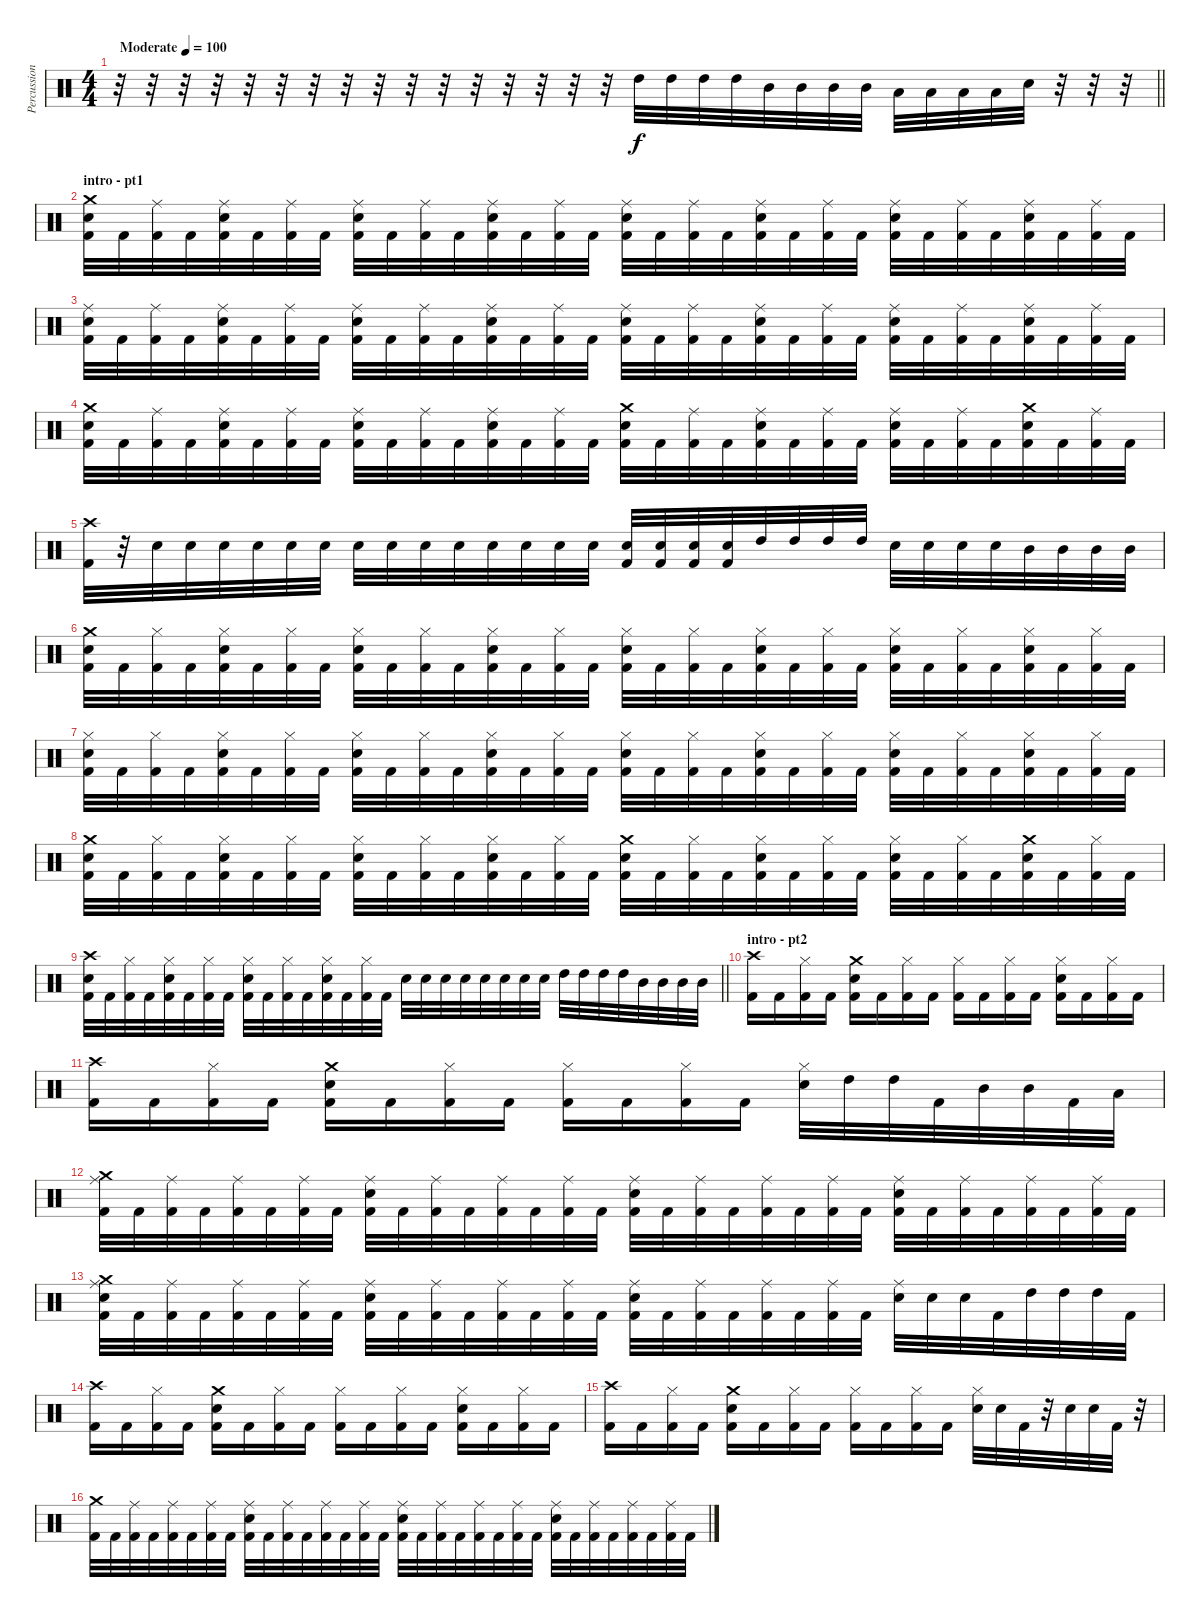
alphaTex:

\track ("Percussion" "Percussion") {instrument percussion}
\staff {score}
\articulation defaults
\ts (4 4)
\tempo (100 "Moderate")
\clef neutral
\barLineRight lightlight
\ks c
r.32{dy f} r.32 r.32 r.32 r.32 r.32 r.32 r.32 r.32 r.32 r.32 r.32 r.32 r.32 r.32 r.32 "High Tom (hit)".32 "High Tom (hit)".32 "High Tom (hit)".32 "High Tom (hit)".32 "Mid Tom (hit)".32 "Mid Tom (hit)".32 "Mid Tom (hit)".32 "Mid Tom (hit)".32 "Low Tom (hit)".32 "Low Tom (hit)".32 "Low Tom (hit)".32 "Low Tom (hit)".32 "Electric Snare (hit)".32 r.32 r.32 r.32 |
\section ("" "intro - pt1")
("Crash medium (hit)" "Electric Snare (hit)" "Kick (hit) 2").32 "Kick (hit) 2".32 ("Ride (middle)" "Kick (hit) 2").32 "Kick (hit) 2".32 ("Ride (middle)" "Electric Snare (hit)" "Kick (hit) 2").32 "Kick (hit) 2".32 ("Ride (middle)" "Kick (hit) 2").32 "Kick (hit) 2".32 ("Ride (middle)" "Electric Snare (hit)" "Kick (hit) 2").32 "Kick (hit) 2".32 ("Ride (middle)" "Kick (hit) 2").32 "Kick (hit) 2".32 ("Ride (middle)" "Electric Snare (hit)" "Kick (hit) 2").32 "Kick (hit) 2".32 ("Ride (middle)" "Kick (hit) 2").32 "Kick (hit) 2".32 ("Ride (middle)" "Electric Snare (hit)" "Kick (hit) 2").32 "Kick (hit) 2".32 ("Ride (middle)" "Kick (hit) 2").32 "Kick (hit) 2".32 ("Ride (middle)" "Electric Snare (hit)" "Kick (hit) 2").32 "Kick (hit) 2".32 ("Ride (middle)" "Kick (hit) 2").32 "Kick (hit) 2".32 ("Ride (middle)" "Electric Snare (hit)" "Kick (hit) 2").32 "Kick (hit) 2".32 ("Ride (middle)" "Kick (hit) 2").32 "Kick (hit) 2".32 ("Ride (middle)" "Electric Snare (hit)" "Kick (hit) 2").32 "Kick (hit) 2".32 ("Ride (middle)" "Kick (hit) 2").32 "Kick (hit) 2".32 |
("Ride (middle)" "Electric Snare (hit)" "Kick (hit) 2").32 "Kick (hit) 2".32 ("Ride (middle)" "Kick (hit) 2").32 "Kick (hit) 2".32 ("Ride (middle)" "Electric Snare (hit)" "Kick (hit) 2").32 "Kick (hit) 2".32 ("Ride (middle)" "Kick (hit) 2").32 "Kick (hit) 2".32 ("Ride (middle)" "Electric Snare (hit)" "Kick (hit) 2").32 "Kick (hit) 2".32 ("Ride (middle)" "Kick (hit) 2").32 "Kick (hit) 2".32 ("Ride (middle)" "Electric Snare (hit)" "Kick (hit) 2").32 "Kick (hit) 2".32 ("Ride (middle)" "Kick (hit) 2").32 "Kick (hit) 2".32 ("Ride (middle)" "Electric Snare (hit)" "Kick (hit) 2").32 "Kick (hit) 2".32 ("Ride (middle)" "Kick (hit) 2").32 "Kick (hit) 2".32 ("Ride (middle)" "Electric Snare (hit)" "Kick (hit) 2").32 "Kick (hit) 2".32 ("Ride (middle)" "Kick (hit) 2").32 "Kick (hit) 2".32 ("Ride (middle)" "Electric Snare (hit)" "Kick (hit) 2").32 "Kick (hit) 2".32 ("Ride (middle)" "Kick (hit) 2").32 "Kick (hit) 2".32 ("Ride (middle)" "Electric Snare (hit)" "Kick (hit) 2").32 "Kick (hit) 2".32 ("Ride (middle)" "Kick (hit) 2").32 "Kick (hit) 2".32 |
("Crash medium (hit)" "Electric Snare (hit)" "Kick (hit) 2").32 "Kick (hit) 2".32 ("Ride (middle)" "Kick (hit) 2").32 "Kick (hit) 2".32 ("Ride (middle)" "Electric Snare (hit)" "Kick (hit) 2").32 "Kick (hit) 2".32 ("Ride (middle)" "Kick (hit) 2").32 "Kick (hit) 2".32 ("Ride (middle)" "Electric Snare (hit)" "Kick (hit) 2").32 "Kick (hit) 2".32 ("Ride (middle)" "Kick (hit) 2").32 "Kick (hit) 2".32 ("Ride (middle)" "Electric Snare (hit)" "Kick (hit) 2").32 "Kick (hit) 2".32 ("Ride (middle)" "Kick (hit) 2").32 "Kick (hit) 2".32 ("Crash medium (hit)" "Electric Snare (hit)" "Kick (hit) 2").32 "Kick (hit) 2".32 ("Ride (middle)" "Kick (hit) 2").32 "Kick (hit) 2".32 ("Ride (middle)" "Electric Snare (hit)" "Kick (hit) 2").32 "Kick (hit) 2".32 ("Ride (middle)" "Kick (hit) 2").32 "Kick (hit) 2".32 ("Ride (middle)" "Electric Snare (hit)" "Kick (hit) 2").32 "Kick (hit) 2".32 ("Ride (middle)" "Kick (hit) 2").32 "Kick (hit) 2".32 ("Crash medium (hit)" "Electric Snare (hit)" "Kick (hit) 2").32 "Kick (hit) 2".32 ("Ride (middle)" "Kick (hit) 2").32 "Kick (hit) 2".32 |
("Crash high (hit)" "Kick (hit) 2").32 r.32 "Electric Snare (hit)".32 "Electric Snare (hit)".32 "Electric Snare (hit)".32 "Electric Snare (hit)".32 "Electric Snare (hit)".32 "Electric Snare (hit)".32 "Electric Snare (hit)".32 "Electric Snare (hit)".32 "Electric Snare (hit)".32 "Electric Snare (hit)".32 "Electric Snare (hit)".32 "Electric Snare (hit)".32 "Electric Snare (hit)".32 "Electric Snare (hit)".32 ("Electric Snare (hit)" "Kick (hit) 2").32 ("Electric Snare (hit)" "Kick (hit) 2").32 ("Electric Snare (hit)" "Kick (hit) 2").32 ("Electric Snare (hit)" "Kick (hit) 2").32 "High Tom (hit)".32 "High Tom (hit)".32 "High Tom (hit)".32 "High Tom (hit)".32 "Electric Snare (hit)".32 "Electric Snare (hit)".32 "Electric Snare (hit)".32 "Electric Snare (hit)".32 "Mid Tom (hit)".32 "Mid Tom (hit)".32 "Mid Tom (hit)".32 "Mid Tom (hit)".32 |
("Crash medium (hit)" "Electric Snare (hit)" "Kick (hit) 2").32 "Kick (hit) 2".32 ("Hi-Hat (closed)" "Kick (hit) 2").32 "Kick (hit) 2".32 ("Hi-Hat (closed)" "Electric Snare (hit)" "Kick (hit) 2").32 "Kick (hit) 2".32 ("Hi-Hat (closed)" "Kick (hit) 2").32 "Kick (hit) 2".32 ("Hi-Hat (closed)" "Electric Snare (hit)" "Kick (hit) 2").32 "Kick (hit) 2".32 ("Hi-Hat (closed)" "Kick (hit) 2").32 "Kick (hit) 2".32 ("Hi-Hat (closed)" "Electric Snare (hit)" "Kick (hit) 2").32 "Kick (hit) 2".32 ("Hi-Hat (closed)" "Kick (hit) 2").32 "Kick (hit) 2".32 ("Hi-Hat (closed)" "Electric Snare (hit)" "Kick (hit) 2").32 "Kick (hit) 2".32 ("Hi-Hat (closed)" "Kick (hit) 2").32 "Kick (hit) 2".32 ("Hi-Hat (closed)" "Electric Snare (hit)" "Kick (hit) 2").32 "Kick (hit) 2".32 ("Hi-Hat (closed)" "Kick (hit) 2").32 "Kick (hit) 2".32 ("Hi-Hat (closed)" "Electric Snare (hit)" "Kick (hit) 2").32 "Kick (hit) 2".32 ("Hi-Hat (closed)" "Kick (hit) 2").32 "Kick (hit) 2".32 ("Hi-Hat (closed)" "Electric Snare (hit)" "Kick (hit) 2").32 "Kick (hit) 2".32 ("Hi-Hat (closed)" "Kick (hit) 2").32 "Kick (hit) 2".32 |
("Hi-Hat (closed)" "Electric Snare (hit)" "Kick (hit) 2").32 "Kick (hit) 2".32 ("Hi-Hat (closed)" "Kick (hit) 2").32 "Kick (hit) 2".32 ("Hi-Hat (closed)" "Electric Snare (hit)" "Kick (hit) 2").32 "Kick (hit) 2".32 ("Hi-Hat (closed)" "Kick (hit) 2").32 "Kick (hit) 2".32 ("Hi-Hat (closed)" "Electric Snare (hit)" "Kick (hit) 2").32 "Kick (hit) 2".32 ("Hi-Hat (closed)" "Kick (hit) 2").32 "Kick (hit) 2".32 ("Hi-Hat (closed)" "Electric Snare (hit)" "Kick (hit) 2").32 "Kick (hit) 2".32 ("Hi-Hat (closed)" "Kick (hit) 2").32 "Kick (hit) 2".32 ("Hi-Hat (closed)" "Electric Snare (hit)" "Kick (hit) 2").32 "Kick (hit) 2".32 ("Hi-Hat (closed)" "Kick (hit) 2").32 "Kick (hit) 2".32 ("Hi-Hat (closed)" "Electric Snare (hit)" "Kick (hit) 2").32 "Kick (hit) 2".32 ("Hi-Hat (closed)" "Kick (hit) 2").32 "Kick (hit) 2".32 ("Hi-Hat (closed)" "Electric Snare (hit)" "Kick (hit) 2").32 "Kick (hit) 2".32 ("Hi-Hat (closed)" "Kick (hit) 2").32 "Kick (hit) 2".32 ("Hi-Hat (closed)" "Electric Snare (hit)" "Kick (hit) 2").32 "Kick (hit) 2".32 ("Hi-Hat (closed)" "Kick (hit) 2").32 "Kick (hit) 2".32 |
("Crash medium (hit)" "Electric Snare (hit)" "Kick (hit) 2").32 "Kick (hit) 2".32 ("Hi-Hat (closed)" "Kick (hit) 2").32 "Kick (hit) 2".32 ("Hi-Hat (closed)" "Electric Snare (hit)" "Kick (hit) 2").32 "Kick (hit) 2".32 ("Hi-Hat (closed)" "Kick (hit) 2").32 "Kick (hit) 2".32 ("Hi-Hat (closed)" "Electric Snare (hit)" "Kick (hit) 2").32 "Kick (hit) 2".32 ("Hi-Hat (closed)" "Kick (hit) 2").32 "Kick (hit) 2".32 ("Hi-Hat (closed)" "Electric Snare (hit)" "Kick (hit) 2").32 "Kick (hit) 2".32 ("Hi-Hat (closed)" "Kick (hit) 2").32 "Kick (hit) 2".32 ("Crash medium (hit)" "Electric Snare (hit)" "Kick (hit) 2").32 "Kick (hit) 2".32 ("Hi-Hat (closed)" "Kick (hit) 2").32 "Kick (hit) 2".32 ("Hi-Hat (closed)" "Electric Snare (hit)" "Kick (hit) 2").32 "Kick (hit) 2".32 ("Hi-Hat (closed)" "Kick (hit) 2").32 "Kick (hit) 2".32 ("Hi-Hat (closed)" "Electric Snare (hit)" "Kick (hit) 2").32 "Kick (hit) 2".32 ("Hi-Hat (closed)" "Kick (hit) 2").32 "Kick (hit) 2".32 ("Crash medium (hit)" "Electric Snare (hit)" "Kick (hit) 2").32 "Kick (hit) 2".32 ("Hi-Hat (closed)" "Kick (hit) 2").32 "Kick (hit) 2".32 |
\barLineRight lightlight
("Crash high (hit)" "Electric Snare (hit)" "Kick (hit) 2").32 "Kick (hit) 2".32 ("Hi-Hat (closed)" "Kick (hit) 2").32 "Kick (hit) 2".32 ("Hi-Hat (closed)" "Electric Snare (hit)" "Kick (hit) 2").32 "Kick (hit) 2".32 ("Hi-Hat (closed)" "Kick (hit) 2").32 "Kick (hit) 2".32 ("Hi-Hat (closed)" "Electric Snare (hit)" "Kick (hit) 2").32 "Kick (hit) 2".32 ("Hi-Hat (closed)" "Kick (hit) 2").32 "Kick (hit) 2".32 ("Hi-Hat (closed)" "Electric Snare (hit)" "Kick (hit) 2").32 "Kick (hit) 2".32 ("Hi-Hat (closed)" "Kick (hit) 2").32 "Kick (hit) 2".32 "Electric Snare (hit)".32 "Electric Snare (hit)".32 "Electric Snare (hit)".32 "Electric Snare (hit)".32 "Electric Snare (hit)".32 "Electric Snare (hit)".32 "Electric Snare (hit)".32 "Electric Snare (hit)".32 "High Tom (hit)".32 "High Tom (hit)".32 "High Tom (hit)".32 "High Tom (hit)".32 "Mid Tom (hit)".32 "Mid Tom (hit)".32 "Mid Tom (hit)".32 "Mid Tom (hit)".32 |
\section ("" "intro - pt2")
("Crash high (hit)" "Kick (hit) 2").16 "Kick (hit) 2".16 ("Hi-Hat (closed)" "Kick (hit) 2").16 "Kick (hit) 2".16 ("Crash medium (hit)" "Electric Snare (hit)" "Kick (hit) 2").16 "Kick (hit) 2".16 ("Hi-Hat (closed)" "Kick (hit) 2").16 "Kick (hit) 2".16 ("Hi-Hat (closed)" "Kick (hit) 2").16 "Kick (hit) 2".16 ("Hi-Hat (closed)" "Kick (hit) 2").16 "Kick (hit) 2".16 ("Hi-Hat (closed)" "Electric Snare (hit)" "Kick (hit) 2").16 "Kick (hit) 2".16 ("Hi-Hat (closed)" "Kick (hit) 2").16 "Kick (hit) 2".16 |
("Crash high (hit)" "Kick (hit) 2").16 "Kick (hit) 2".16 ("Hi-Hat (closed)" "Kick (hit) 2").16 "Kick (hit) 2".16 ("Crash medium (hit)" "Electric Snare (hit)" "Kick (hit) 2").16 "Kick (hit) 2".16 ("Hi-Hat (closed)" "Kick (hit) 2").16 "Kick (hit) 2".16 ("Hi-Hat (closed)" "Kick (hit) 2").16 "Kick (hit) 2".16 ("Hi-Hat (closed)" "Kick (hit) 2").16 "Kick (hit) 2".16 ("Hi-Hat (closed)" "Electric Snare (hit)").32 "High Tom (hit)".32 "High Tom (hit)".32 "Kick (hit) 2".32 "Mid Tom (hit)".32 "Mid Tom (hit)".32 "Kick (hit) 2".32 "Low Tom (hit)".32 |
("Crash medium (hit)" "Ride (middle)" "Kick (hit) 2").32 "Kick (hit) 2".32 ("Ride (middle)" "Kick (hit) 2").32 "Kick (hit) 2".32 ("Ride (middle)" "Kick (hit) 2").32 "Kick (hit) 2".32 ("Ride (middle)" "Kick (hit) 2").32 "Kick (hit) 2".32 ("Ride (middle)" "Electric Snare (hit)" "Kick (hit) 2").32 "Kick (hit) 2".32 ("Ride (middle)" "Kick (hit) 2").32 "Kick (hit) 2".32 ("Ride (middle)" "Kick (hit) 2").32 "Kick (hit) 2".32 ("Ride (middle)" "Kick (hit) 2").32 "Kick (hit) 2".32 ("Ride (middle)" "Electric Snare (hit)" "Kick (hit) 2").32 "Kick (hit) 2".32 ("Ride (middle)" "Kick (hit) 2").32 "Kick (hit) 2".32 ("Ride (middle)" "Kick (hit) 2").32 "Kick (hit) 2".32 ("Ride (middle)" "Kick (hit) 2").32 "Kick (hit) 2".32 ("Ride (middle)" "Electric Snare (hit)" "Kick (hit) 2").32 "Kick (hit) 2".32 ("Ride (middle)" "Kick (hit) 2").32 "Kick (hit) 2".32 ("Ride (middle)" "Kick (hit) 2").32 "Kick (hit) 2".32 ("Ride (middle)" "Kick (hit) 2").32 "Kick (hit) 2".32 |
("Crash medium (hit)" "Ride (middle)" "Electric Snare (hit)" "Kick (hit) 2").32 "Kick (hit) 2".32 ("Ride (middle)" "Kick (hit) 2").32 "Kick (hit) 2".32 ("Ride (middle)" "Kick (hit) 2").32 "Kick (hit) 2".32 ("Ride (middle)" "Kick (hit) 2").32 "Kick (hit) 2".32 ("Ride (middle)" "Electric Snare (hit)" "Kick (hit) 2").32 "Kick (hit) 2".32 ("Ride (middle)" "Kick (hit) 2").32 "Kick (hit) 2".32 ("Ride (middle)" "Kick (hit) 2").32 "Kick (hit) 2".32 ("Ride (middle)" "Kick (hit) 2").32 "Kick (hit) 2".32 ("Ride (middle)" "Electric Snare (hit)" "Kick (hit) 2").32 "Kick (hit) 2".32 ("Ride (middle)" "Kick (hit) 2").32 "Kick (hit) 2".32 ("Ride (middle)" "Kick (hit) 2").32 "Kick (hit) 2".32 ("Ride (middle)" "Kick (hit) 2").32 "Kick (hit) 2".32 ("Ride (middle)" "Electric Snare (hit)").32 "Electric Snare (hit)".32 "Electric Snare (hit)".32 "Kick (hit) 2".32 "High Tom (hit)".32 "High Tom (hit)".32 "High Tom (hit)".32 "Kick (hit) 2".32 |
("Crash high (hit)" "Kick (hit) 2").16 "Kick (hit) 2".16 ("Hi-Hat (closed)" "Kick (hit) 2").16 "Kick (hit) 2".16 ("Crash medium (hit)" "Electric Snare (hit)" "Kick (hit) 2").16 "Kick (hit) 2".16 ("Hi-Hat (closed)" "Kick (hit) 2").16 "Kick (hit) 2".16 ("Hi-Hat (closed)" "Kick (hit) 2").16 "Kick (hit) 2".16 ("Hi-Hat (closed)" "Kick (hit) 2").16 "Kick (hit) 2".16 ("Hi-Hat (closed)" "Electric Snare (hit)" "Kick (hit) 2").16 "Kick (hit) 2".16 ("Hi-Hat (closed)" "Kick (hit) 2").16 "Kick (hit) 2".16 |
("Crash high (hit)" "Kick (hit) 2").16 "Kick (hit) 2".16 ("Hi-Hat (closed)" "Kick (hit) 2").16 "Kick (hit) 2".16 ("Crash medium (hit)" "Electric Snare (hit)" "Kick (hit) 2").16 "Kick (hit) 2".16 ("Hi-Hat (closed)" "Kick (hit) 2").16 "Kick (hit) 2".16 ("Hi-Hat (closed)" "Kick (hit) 2").16 "Kick (hit) 2".16 ("Hi-Hat (closed)" "Kick (hit) 2").16 "Kick (hit) 2".16 ("Hi-Hat (closed)" "Electric Snare (hit)").32 "Electric Snare (hit)".32 "Kick (hit) 2".32 r.32 "Electric Snare (hit)".32 "Electric Snare (hit)".32 "Kick (hit) 2".32 r.32 |
("Crash medium (hit)" "Kick (hit) 2").32 "Kick (hit) 2".32 ("Ride (middle)" "Kick (hit) 2").32 "Kick (hit) 2".32 ("Ride (middle)" "Kick (hit) 2").32 "Kick (hit) 2".32 ("Ride (middle)" "Kick (hit) 2").32 "Kick (hit) 2".32 ("Ride (middle)" "Electric Snare (hit)" "Kick (hit) 2").32 "Kick (hit) 2".32 ("Ride (middle)" "Kick (hit) 2").32 "Kick (hit) 2".32 ("Ride (middle)" "Kick (hit) 2").32 "Kick (hit) 2".32 ("Ride (middle)" "Kick (hit) 2").32 "Kick (hit) 2".32 ("Ride (middle)" "Electric Snare (hit)" "Kick (hit) 2").32 "Kick (hit) 2".32 ("Ride (middle)" "Kick (hit) 2").32 "Kick (hit) 2".32 ("Ride (middle)" "Kick (hit) 2").32 "Kick (hit) 2".32 ("Ride (middle)" "Kick (hit) 2").32 "Kick (hit) 2".32 ("Ride (middle)" "Electric Snare (hit)" "Kick (hit) 2").32 "Kick (hit) 2".32 ("Ride (middle)" "Kick (hit) 2").32 "Kick (hit) 2".32 ("Ride (middle)" "Kick (hit) 2").32 "Kick (hit) 2".32 ("Ride (middle)" "Kick (hit) 2").32 "Kick (hit) 2".32
